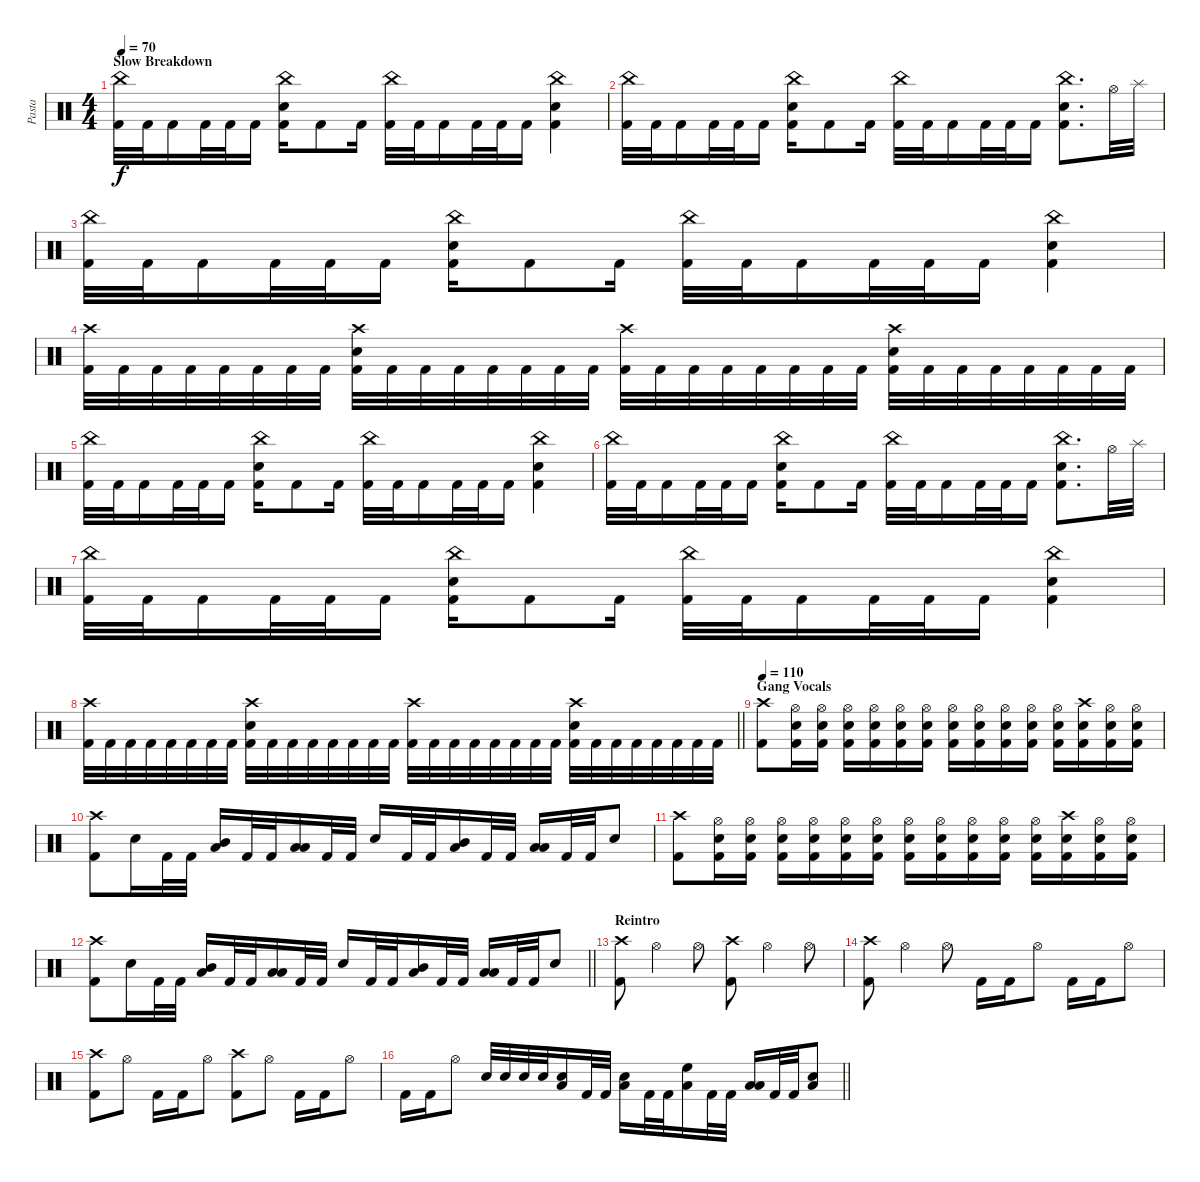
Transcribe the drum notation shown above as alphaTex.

\track ("Pasta" "Pasta") {instrument percussion}
\staff {score}
\articulation defaults
\ts (4 4)
\section ("" "Slow Breakdown")
\tempo 70
\clef neutral
\ks c
("China (hit)" "Kick (hit) 2").32{dy f volume 16} "Kick (hit) 2".32 "Kick (hit) 2".16 "Kick (hit) 2".32 "Kick (hit) 2".32 "Kick (hit) 2".16 ("China (hit)" "Electric Snare (hit)" "Kick (hit) 2").16 "Kick (hit) 2".8 "Kick (hit) 2".16 ("China (hit)" "Kick (hit) 2").32 "Kick (hit) 2".32 "Kick (hit) 2".16 "Kick (hit) 2".32 "Kick (hit) 2".32 "Kick (hit) 2".16 ("China (hit)" "Electric Snare (hit)" "Kick (hit) 2").4 |
("China (hit)" "Kick (hit) 2").32 "Kick (hit) 2".32 "Kick (hit) 2".16 "Kick (hit) 2".32 "Kick (hit) 2".32 "Kick (hit) 2".16 ("China (hit)" "Electric Snare (hit)" "Kick (hit) 2").16 "Kick (hit) 2".8 "Kick (hit) 2".16 ("China (hit)" "Kick (hit) 2").32 "Kick (hit) 2".32 "Kick (hit) 2".16 "Kick (hit) 2".32 "Kick (hit) 2".32 "Kick (hit) 2".16 ("China (hit)" "Electric Snare (hit)" "Kick (hit) 2").8{d} "Hi-Hat (open)".32 "Splash (hit)".32 |
("China (hit)" "Kick (hit) 2").32 "Kick (hit) 2".32 "Kick (hit) 2".16 "Kick (hit) 2".32 "Kick (hit) 2".32 "Kick (hit) 2".16 ("China (hit)" "Electric Snare (hit)" "Kick (hit) 2").16 "Kick (hit) 2".8 "Kick (hit) 2".16 ("China (hit)" "Kick (hit) 2").32 "Kick (hit) 2".32 "Kick (hit) 2".16 "Kick (hit) 2".32 "Kick (hit) 2".32 "Kick (hit) 2".16 ("China (hit)" "Electric Snare (hit)" "Kick (hit) 2").4 |
("Crash high (hit)" "Kick (hit) 2").32 "Kick (hit) 2".32 "Kick (hit) 2".32 "Kick (hit) 2".32 "Kick (hit) 2".32 "Kick (hit) 2".32 "Kick (hit) 2".32 "Kick (hit) 2".32 ("Crash high (hit)" "Electric Snare (hit)" "Kick (hit) 2").32 "Kick (hit) 2".32 "Kick (hit) 2".32 "Kick (hit) 2".32 "Kick (hit) 2".32 "Kick (hit) 2".32 "Kick (hit) 2".32 "Kick (hit) 2".32 ("Crash high (hit)" "Kick (hit) 2").32 "Kick (hit) 2".32 "Kick (hit) 2".32 "Kick (hit) 2".32 "Kick (hit) 2".32 "Kick (hit) 2".32 "Kick (hit) 2".32 "Kick (hit) 2".32 ("Crash high (hit)" "Electric Snare (hit)" "Kick (hit) 2").32 "Kick (hit) 2".32 "Kick (hit) 2".32 "Kick (hit) 2".32 "Kick (hit) 2".32 "Kick (hit) 2".32 "Kick (hit) 2".32 "Kick (hit) 2".32 |
("China (hit)" "Kick (hit) 2").32 "Kick (hit) 2".32 "Kick (hit) 2".16 "Kick (hit) 2".32 "Kick (hit) 2".32 "Kick (hit) 2".16 ("China (hit)" "Electric Snare (hit)" "Kick (hit) 2").16 "Kick (hit) 2".8 "Kick (hit) 2".16 ("China (hit)" "Kick (hit) 2").32 "Kick (hit) 2".32 "Kick (hit) 2".16 "Kick (hit) 2".32 "Kick (hit) 2".32 "Kick (hit) 2".16 ("China (hit)" "Electric Snare (hit)" "Kick (hit) 2").4 |
("China (hit)" "Kick (hit) 2").32 "Kick (hit) 2".32 "Kick (hit) 2".16 "Kick (hit) 2".32 "Kick (hit) 2".32 "Kick (hit) 2".16 ("China (hit)" "Electric Snare (hit)" "Kick (hit) 2").16 "Kick (hit) 2".8 "Kick (hit) 2".16 ("China (hit)" "Kick (hit) 2").32 "Kick (hit) 2".32 "Kick (hit) 2".16 "Kick (hit) 2".32 "Kick (hit) 2".32 "Kick (hit) 2".16 ("China (hit)" "Electric Snare (hit)" "Kick (hit) 2").8{d} "Hi-Hat (open)".32 "Splash (hit)".32 |
("China (hit)" "Kick (hit) 2").32 "Kick (hit) 2".32 "Kick (hit) 2".16 "Kick (hit) 2".32 "Kick (hit) 2".32 "Kick (hit) 2".16 ("China (hit)" "Electric Snare (hit)" "Kick (hit) 2").16 "Kick (hit) 2".8 "Kick (hit) 2".16 ("China (hit)" "Kick (hit) 2").32 "Kick (hit) 2".32 "Kick (hit) 2".16 "Kick (hit) 2".32 "Kick (hit) 2".32 "Kick (hit) 2".16 ("China (hit)" "Electric Snare (hit)" "Kick (hit) 2").4 |
\barLineRight lightlight
("Crash high (hit)" "Kick (hit) 2").32 "Kick (hit) 2".32 "Kick (hit) 2".32 "Kick (hit) 2".32 "Kick (hit) 2".32 "Kick (hit) 2".32 "Kick (hit) 2".32 "Kick (hit) 2".32 ("Crash high (hit)" "Electric Snare (hit)" "Kick (hit) 2").32 "Kick (hit) 2".32 "Kick (hit) 2".32 "Kick (hit) 2".32 "Kick (hit) 2".32 "Kick (hit) 2".32 "Kick (hit) 2".32 "Kick (hit) 2".32 ("Crash high (hit)" "Kick (hit) 2").32 "Kick (hit) 2".32 "Kick (hit) 2".32 "Kick (hit) 2".32 "Kick (hit) 2".32 "Kick (hit) 2".32 "Kick (hit) 2".32 "Kick (hit) 2".32 ("Crash high (hit)" "Electric Snare (hit)" "Kick (hit) 2").32 "Kick (hit) 2".32 "Kick (hit) 2".32 "Kick (hit) 2".32 "Kick (hit) 2".32 "Kick (hit) 2".32 "Kick (hit) 2".32 "Kick (hit) 2".32 |
\section ("" "Gang Vocals")
\tempo 110
("Crash high (hit)" "Kick (hit) 2").8 ("Hi-Hat (open)" "Electric Snare (hit)" "Kick (hit) 2").16 ("Hi-Hat (open)" "Electric Snare (hit)" "Kick (hit) 2").16 ("Hi-Hat (open)" "Electric Snare (hit)" "Kick (hit) 2").16 ("Hi-Hat (open)" "Electric Snare (hit)" "Kick (hit) 2").16 ("Hi-Hat (open)" "Electric Snare (hit)" "Kick (hit) 2").16 ("Hi-Hat (open)" "Electric Snare (hit)" "Kick (hit) 2").16 ("Hi-Hat (open)" "Electric Snare (hit)" "Kick (hit) 2").16 ("Hi-Hat (open)" "Electric Snare (hit)" "Kick (hit) 2").16 ("Hi-Hat (open)" "Electric Snare (hit)" "Kick (hit) 2").16 ("Hi-Hat (open)" "Electric Snare (hit)" "Kick (hit) 2").16 ("Hi-Hat (open)" "Electric Snare (hit)" "Kick (hit) 2").16 ("Crash high (hit)" "Electric Snare (hit)" "Kick (hit) 2").16 ("Hi-Hat (open)" "Electric Snare (hit)" "Kick (hit) 2").16 ("Hi-Hat (open)" "Electric Snare (hit)" "Kick (hit) 2").16 |
("Crash high (hit)" "Kick (hit) 2").8 "Electric Snare (hit)".16 "Kick (hit) 2".32 "Kick (hit) 2".32 ("Mid Tom (hit)" "Low Tom (hit)").16 "Kick (hit) 2".32 "Kick (hit) 2".32 ("Low Tom (hit)" "Low Floor Tom (hit)").16 "Kick (hit) 2".32 "Kick (hit) 2".32 "Electric Snare (hit)".16 "Kick (hit) 2".32 "Kick (hit) 2".32 ("Mid Tom (hit)" "Low Tom (hit)").16 "Kick (hit) 2".32 "Kick (hit) 2".32 ("Low Tom (hit)" "Low Floor Tom (hit)").16 "Kick (hit) 2".32 "Kick (hit) 2".32 "Electric Snare (hit)".8 |
("Crash high (hit)" "Kick (hit) 2").8 ("Hi-Hat (open)" "Electric Snare (hit)" "Kick (hit) 2").16 ("Hi-Hat (open)" "Electric Snare (hit)" "Kick (hit) 2").16 ("Hi-Hat (open)" "Electric Snare (hit)" "Kick (hit) 2").16 ("Hi-Hat (open)" "Electric Snare (hit)" "Kick (hit) 2").16 ("Hi-Hat (open)" "Electric Snare (hit)" "Kick (hit) 2").16 ("Hi-Hat (open)" "Electric Snare (hit)" "Kick (hit) 2").16 ("Hi-Hat (open)" "Electric Snare (hit)" "Kick (hit) 2").16 ("Hi-Hat (open)" "Electric Snare (hit)" "Kick (hit) 2").16 ("Hi-Hat (open)" "Electric Snare (hit)" "Kick (hit) 2").16 ("Hi-Hat (open)" "Electric Snare (hit)" "Kick (hit) 2").16 ("Hi-Hat (open)" "Electric Snare (hit)" "Kick (hit) 2").16 ("Crash high (hit)" "Electric Snare (hit)" "Kick (hit) 2").16 ("Hi-Hat (open)" "Electric Snare (hit)" "Kick (hit) 2").16 ("Hi-Hat (open)" "Electric Snare (hit)" "Kick (hit) 2").16 |
\barLineRight lightlight
("Crash high (hit)" "Kick (hit) 2").8 "Electric Snare (hit)".16 "Kick (hit) 2".32 "Kick (hit) 2".32 ("Mid Tom (hit)" "Low Tom (hit)").16 "Kick (hit) 2".32 "Kick (hit) 2".32 ("Low Tom (hit)" "Low Floor Tom (hit)").16 "Kick (hit) 2".32 "Kick (hit) 2".32 "Electric Snare (hit)".16 "Kick (hit) 2".32 "Kick (hit) 2".32 ("Mid Tom (hit)" "Low Tom (hit)").16 "Kick (hit) 2".32 "Kick (hit) 2".32 ("Low Tom (hit)" "Low Floor Tom (hit)").16 "Kick (hit) 2".32 "Kick (hit) 2".32 "Electric Snare (hit)".8 |
\section ("" "Reintro")
("Crash high (hit)" "Kick (hit) 2").8 "Hi-Hat (open)".4 "Hi-Hat (open)".8 ("Crash high (hit)" "Kick (hit) 2").8 "Hi-Hat (open)".4 "Hi-Hat (open)".8 |
("Crash high (hit)" "Kick (hit) 2").8 "Hi-Hat (open)".4 "Hi-Hat (open)".8 "Kick (hit) 2".16 "Kick (hit) 2".16 "Hi-Hat (open)".8 "Kick (hit) 2".16 "Kick (hit) 2".16 "Hi-Hat (open)".8 |
("Crash high (hit)" "Kick (hit) 2").8 "Hi-Hat (open)".8 "Kick (hit) 2".16 "Kick (hit) 2".16 "Hi-Hat (open)".8 ("Crash high (hit)" "Kick (hit) 2").8 "Hi-Hat (open)".8 "Kick (hit) 2".16 "Kick (hit) 2".16 "Hi-Hat (open)".8 |
\barLineRight lightlight "Kick (hit) 2".16 "Kick (hit) 2".16 "Hi-Hat (open)".8 "Electric Snare (hit)".32 "Electric Snare (hit)".32 "Electric Snare (hit)".32 "Electric Snare (hit)".32
("Electric Snare (hit)" "Low Tom (hit)").16 "Kick (hit) 2".32 "Kick (hit) 2".32 ("Low Tom (hit)" "Electric Snare (hit)").16 "Kick (hit) 2".32 "Kick (hit) 2".32 ("High Floor Tom (hit)" "Low Tom (hit)").16 "Kick (hit) 2".32 "Kick (hit) 2".32 ("Low Floor Tom (hit)" "Low Tom (hit)").16 "Kick (hit) 2".32 "Kick (hit) 2".32 ("Low Floor Tom (hit)" "Electric Snare (hit)").8
